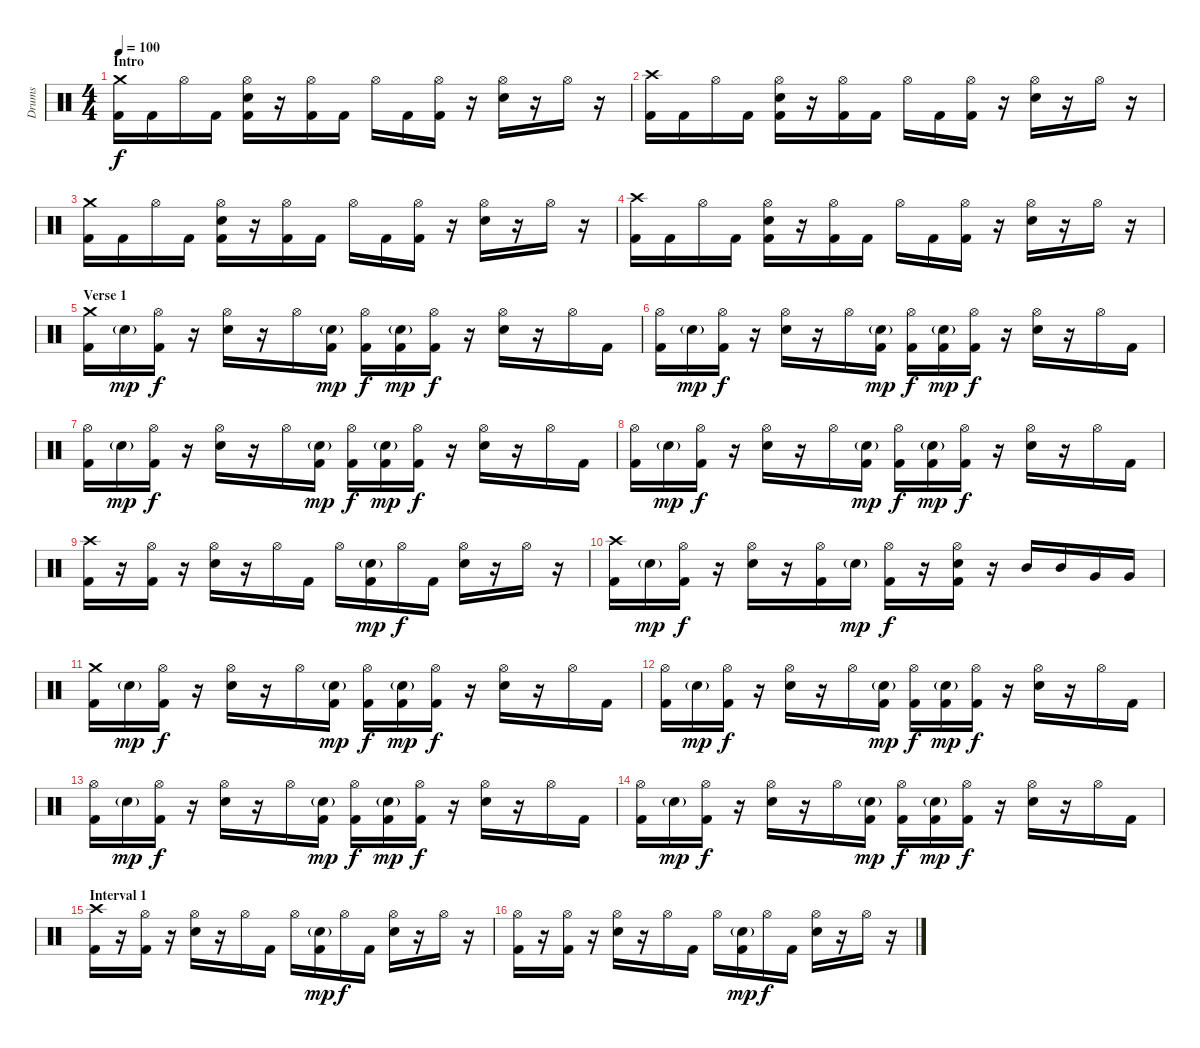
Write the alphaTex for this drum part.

\track ("Drums" "Drums") {instrument percussion}
\staff {score}
\articulation defaults
\ts (4 4)
\section ("" "Intro")
\tempo 100
\clef neutral
\ks c
("Crash medium (hit)" "Kick (hit) 2").16{dy f} "Kick (hit) 2".16 "Hi-Hat (open)".16 "Kick (hit) 2".16 ("Hi-Hat (open)" "Snare (hit) 2" "Kick (hit) 2").16 r.16 ("Hi-Hat (open)" "Kick (hit) 2").16 "Kick (hit) 2".16 "Hi-Hat (open)".16 "Kick (hit) 2".16 ("Hi-Hat (open)" "Kick (hit) 2").16 r.16 ("Hi-Hat (open)" "Snare (hit) 2").16 r.16 "Hi-Hat (open)".16 r.16 |
("Crash high (hit)" "Kick (hit) 2").16 "Kick (hit) 2".16 "Hi-Hat (open)".16 "Kick (hit) 2".16 ("Hi-Hat (open)" "Snare (hit) 2" "Kick (hit) 2").16 r.16 ("Hi-Hat (open)" "Kick (hit) 2").16 "Kick (hit) 2".16 "Hi-Hat (open)".16 "Kick (hit) 2".16 ("Hi-Hat (open)" "Kick (hit) 2").16 r.16 ("Hi-Hat (open)" "Snare (hit) 2").16 r.16 "Hi-Hat (open)".16 r.16 |
("Crash medium (hit)" "Kick (hit) 2").16 "Kick (hit) 2".16 "Hi-Hat (open)".16 "Kick (hit) 2".16 ("Hi-Hat (open)" "Snare (hit) 2" "Kick (hit) 2").16 r.16 ("Hi-Hat (open)" "Kick (hit) 2").16 "Kick (hit) 2".16 "Hi-Hat (open)".16 "Kick (hit) 2".16 ("Hi-Hat (open)" "Kick (hit) 2").16 r.16 ("Hi-Hat (open)" "Snare (hit) 2").16 r.16 "Hi-Hat (open)".16 r.16 |
("Crash high (hit)" "Kick (hit) 2").16 "Kick (hit) 2".16 "Hi-Hat (open)".16 "Kick (hit) 2".16 ("Hi-Hat (open)" "Snare (hit) 2" "Kick (hit) 2").16 r.16 ("Hi-Hat (open)" "Kick (hit) 2").16 "Kick (hit) 2".16 "Hi-Hat (open)".16 "Kick (hit) 2".16 ("Hi-Hat (open)" "Kick (hit) 2").16 r.16 ("Hi-Hat (open)" "Snare (hit) 2").16 r.16 "Hi-Hat (open)".16 r.16 |
\section ("" "Verse 1")
("Crash medium (hit)" "Kick (hit) 2").16 "Snare (hit) 2"{g}.16{dy mp} ("Hi-Hat (open)" "Kick (hit) 2").16{dy f} r.16 ("Hi-Hat (open)" "Snare (hit) 2").16 r.16 "Hi-Hat (open)".16 ("Snare (hit) 2"{g} "Kick (hit) 2").16{dy mp} ("Hi-Hat (open)" "Kick (hit) 2").16{dy f} ("Snare (hit) 2"{g} "Kick (hit) 2").16{dy mp} ("Hi-Hat (open)" "Kick (hit) 2").16{dy f} r.16 ("Hi-Hat (open)" "Snare (hit) 2").16 r.16 "Hi-Hat (open)".16 "Kick (hit) 2".16 |
("Hi-Hat (open)" "Kick (hit) 2").16 "Snare (hit) 2"{g}.16{dy mp} ("Hi-Hat (open)" "Kick (hit) 2").16{dy f} r.16 ("Hi-Hat (open)" "Snare (hit) 2").16 r.16 "Hi-Hat (open)".16 ("Snare (hit) 2"{g} "Kick (hit) 2").16{dy mp} ("Hi-Hat (open)" "Kick (hit) 2").16{dy f} ("Snare (hit) 2"{g} "Kick (hit) 2").16{dy mp} ("Hi-Hat (open)" "Kick (hit) 2").16{dy f} r.16 ("Hi-Hat (open)" "Snare (hit) 2").16 r.16 "Hi-Hat (open)".16 "Kick (hit) 2".16 |
("Hi-Hat (open)" "Kick (hit) 2").16 "Snare (hit) 2"{g}.16{dy mp} ("Hi-Hat (open)" "Kick (hit) 2").16{dy f} r.16 ("Hi-Hat (open)" "Snare (hit) 2").16 r.16 "Hi-Hat (open)".16 ("Snare (hit) 2"{g} "Kick (hit) 2").16{dy mp} ("Hi-Hat (open)" "Kick (hit) 2").16{dy f} ("Snare (hit) 2"{g} "Kick (hit) 2").16{dy mp} ("Hi-Hat (open)" "Kick (hit) 2").16{dy f} r.16 ("Hi-Hat (open)" "Snare (hit) 2").16 r.16 "Hi-Hat (open)".16 "Kick (hit) 2".16 |
("Hi-Hat (open)" "Kick (hit) 2").16 "Snare (hit) 2"{g}.16{dy mp} ("Hi-Hat (open)" "Kick (hit) 2").16{dy f} r.16 ("Hi-Hat (open)" "Snare (hit) 2").16 r.16 "Hi-Hat (open)".16 ("Snare (hit) 2"{g} "Kick (hit) 2").16{dy mp} ("Hi-Hat (open)" "Kick (hit) 2").16{dy f} ("Snare (hit) 2"{g} "Kick (hit) 2").16{dy mp} ("Hi-Hat (open)" "Kick (hit) 2").16{dy f} r.16 ("Hi-Hat (open)" "Snare (hit) 2").16 r.16 "Hi-Hat (open)".16 "Kick (hit) 2".16 |
("Crash high (hit)" "Kick (hit) 2").16 r.16 ("Hi-Hat (open)" "Kick (hit) 2").16 r.16 ("Hi-Hat (open)" "Snare (hit) 2").16 r.16 "Hi-Hat (open)".16 "Kick (hit) 2".16 "Hi-Hat (open)".16 ("Snare (hit) 2"{g} "Kick (hit) 2").16{dy mp} "Hi-Hat (open)".16{dy f} "Kick (hit) 2".16 ("Hi-Hat (open)" "Snare (hit) 2").16 r.16 "Hi-Hat (open)".16 r.16 |
("Crash high (hit)" "Kick (hit) 2").16 "Snare (hit) 2"{g}.16{dy mp} ("Hi-Hat (open)" "Kick (hit) 2").16{dy f} r.16 ("Hi-Hat (open)" "Snare (hit) 2").16 r.16 ("Hi-Hat (open)" "Kick (hit) 2").16 "Snare (hit) 2"{g}.16{dy mp} ("Hi-Hat (open)" "Kick (hit) 2").16{dy f} r.16 ("Hi-Hat (open)" "Snare (hit) 2" "Kick (hit) 2").16 r.16 "Mid Tom (hit)".16 "Mid Tom (hit)".16 "Very Low Tom (hit)".16 "Very Low Tom (hit)".16 |
("Crash medium (hit)" "Kick (hit) 2").16 "Snare (hit) 2"{g}.16{dy mp} ("Hi-Hat (open)" "Kick (hit) 2").16{dy f} r.16 ("Hi-Hat (open)" "Snare (hit) 2").16 r.16 "Hi-Hat (open)".16 ("Snare (hit) 2"{g} "Kick (hit) 2").16{dy mp} ("Hi-Hat (open)" "Kick (hit) 2").16{dy f} ("Snare (hit) 2"{g} "Kick (hit) 2").16{dy mp} ("Hi-Hat (open)" "Kick (hit) 2").16{dy f} r.16 ("Hi-Hat (open)" "Snare (hit) 2").16 r.16 "Hi-Hat (open)".16 "Kick (hit) 2".16 |
("Hi-Hat (open)" "Kick (hit) 2").16 "Snare (hit) 2"{g}.16{dy mp} ("Hi-Hat (open)" "Kick (hit) 2").16{dy f} r.16 ("Hi-Hat (open)" "Snare (hit) 2").16 r.16 "Hi-Hat (open)".16 ("Snare (hit) 2"{g} "Kick (hit) 2").16{dy mp} ("Hi-Hat (open)" "Kick (hit) 2").16{dy f} ("Snare (hit) 2"{g} "Kick (hit) 2").16{dy mp} ("Hi-Hat (open)" "Kick (hit) 2").16{dy f} r.16 ("Hi-Hat (open)" "Snare (hit) 2").16 r.16 "Hi-Hat (open)".16 "Kick (hit) 2".16 |
("Hi-Hat (open)" "Kick (hit) 2").16 "Snare (hit) 2"{g}.16{dy mp} ("Hi-Hat (open)" "Kick (hit) 2").16{dy f} r.16 ("Hi-Hat (open)" "Snare (hit) 2").16 r.16 "Hi-Hat (open)".16 ("Snare (hit) 2"{g} "Kick (hit) 2").16{dy mp} ("Hi-Hat (open)" "Kick (hit) 2").16{dy f} ("Snare (hit) 2"{g} "Kick (hit) 2").16{dy mp} ("Hi-Hat (open)" "Kick (hit) 2").16{dy f} r.16 ("Hi-Hat (open)" "Snare (hit) 2").16 r.16 "Hi-Hat (open)".16 "Kick (hit) 2".16 |
("Hi-Hat (open)" "Kick (hit) 2").16 "Snare (hit) 2"{g}.16{dy mp} ("Hi-Hat (open)" "Kick (hit) 2").16{dy f} r.16 ("Hi-Hat (open)" "Snare (hit) 2").16 r.16 "Hi-Hat (open)".16 ("Snare (hit) 2"{g} "Kick (hit) 2").16{dy mp} ("Hi-Hat (open)" "Kick (hit) 2").16{dy f} ("Snare (hit) 2"{g} "Kick (hit) 2").16{dy mp} ("Hi-Hat (open)" "Kick (hit) 2").16{dy f} r.16 ("Hi-Hat (open)" "Snare (hit) 2").16 r.16 "Hi-Hat (open)".16 "Kick (hit) 2".16 |
\section ("" "Interval 1")
("Crash high (hit)" "Kick (hit) 2").16 r.16 ("Hi-Hat (open)" "Kick (hit) 2").16 r.16 ("Hi-Hat (open)" "Snare (hit) 2").16 r.16 "Hi-Hat (open)".16 "Kick (hit) 2".16 "Hi-Hat (open)".16 ("Snare (hit) 2"{g} "Kick (hit) 2").16{dy mp} "Hi-Hat (open)".16{dy f} "Kick (hit) 2".16 ("Hi-Hat (open)" "Snare (hit) 2").16 r.16 "Hi-Hat (open)".16 r.16 |
("Hi-Hat (open)" "Kick (hit) 2").16 r.16 ("Hi-Hat (open)" "Kick (hit) 2").16 r.16 ("Hi-Hat (open)" "Snare (hit) 2").16 r.16 "Hi-Hat (open)".16 "Kick (hit) 2".16 "Hi-Hat (open)".16 ("Snare (hit) 2"{g} "Kick (hit) 2").16{dy mp} "Hi-Hat (open)".16{dy f} "Kick (hit) 2".16 ("Hi-Hat (open)" "Snare (hit) 2").16 r.16 "Hi-Hat (open)".16 r.16
